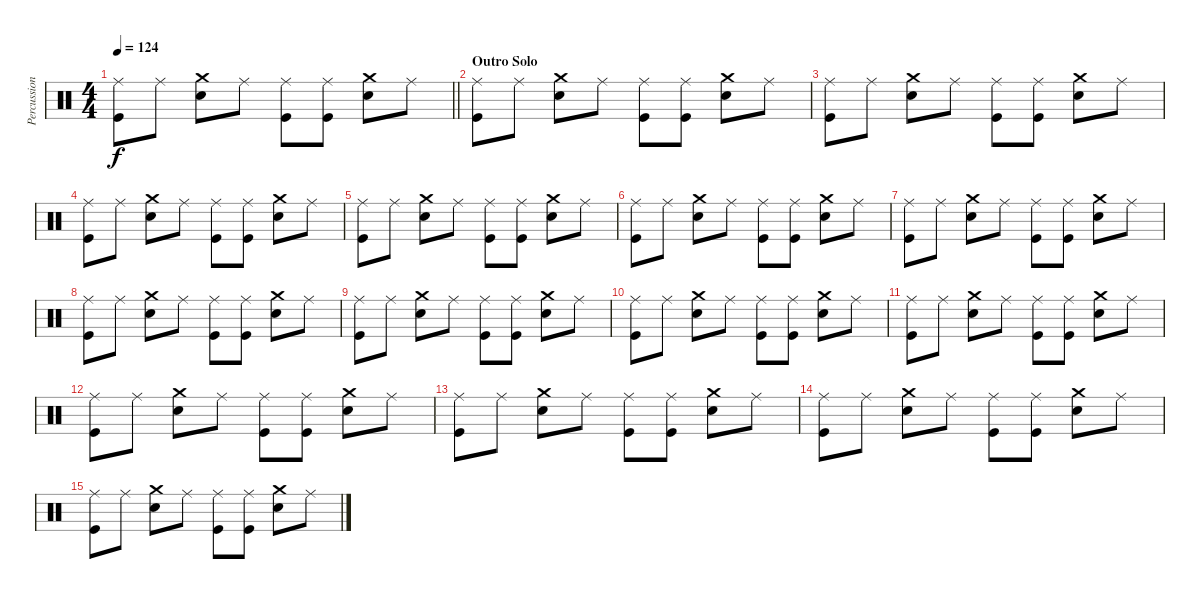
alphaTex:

\track ("Percussion" "Percussion") {instrument percussion}
\staff {score}
\articulation defaults
\ts (4 4)
\tempo 124
\clef neutral
\barLineRight lightlight
\ks c
("Ride (middle)" "Kick (hit)").8{dy f} "Ride (middle)".8 ("Crash medium (hit)" "Snare (hit) 2").8 "Ride (middle)".8 ("Ride (middle)" "Kick (hit)").8 ("Ride (middle)" "Kick (hit)").8 ("Crash medium (hit)" "Snare (hit) 2").8 "Ride (middle)".8 |
\section ("" "Outro Solo")
("Ride (middle)" "Kick (hit)").8 "Ride (middle)".8 ("Crash medium (hit)" "Snare (hit) 2").8 "Ride (middle)".8 ("Ride (middle)" "Kick (hit)").8 ("Ride (middle)" "Kick (hit)").8 ("Crash medium (hit)" "Snare (hit) 2").8 "Ride (middle)".8 |
("Ride (middle)" "Kick (hit)").8 "Ride (middle)".8 ("Crash medium (hit)" "Snare (hit) 2").8 "Ride (middle)".8 ("Ride (middle)" "Kick (hit)").8 ("Ride (middle)" "Kick (hit)").8 ("Crash medium (hit)" "Snare (hit) 2").8 "Ride (middle)".8 |
("Ride (middle)" "Kick (hit)").8 "Ride (middle)".8 ("Crash medium (hit)" "Snare (hit) 2").8 "Ride (middle)".8 ("Ride (middle)" "Kick (hit)").8 ("Ride (middle)" "Kick (hit)").8 ("Crash medium (hit)" "Snare (hit) 2").8 "Ride (middle)".8 |
("Ride (middle)" "Kick (hit)").8 "Ride (middle)".8 ("Crash medium (hit)" "Snare (hit) 2").8 "Ride (middle)".8 ("Ride (middle)" "Kick (hit)").8 ("Ride (middle)" "Kick (hit)").8 ("Crash medium (hit)" "Snare (hit) 2").8 "Ride (middle)".8 |
("Ride (middle)" "Kick (hit)").8 "Ride (middle)".8 ("Crash medium (hit)" "Snare (hit) 2").8 "Ride (middle)".8 ("Ride (middle)" "Kick (hit)").8 ("Ride (middle)" "Kick (hit)").8 ("Crash medium (hit)" "Snare (hit) 2").8 "Ride (middle)".8 |
("Ride (middle)" "Kick (hit)").8 "Ride (middle)".8 ("Crash medium (hit)" "Snare (hit) 2").8 "Ride (middle)".8 ("Ride (middle)" "Kick (hit)").8 ("Ride (middle)" "Kick (hit)").8 ("Crash medium (hit)" "Snare (hit) 2").8 "Ride (middle)".8 |
("Ride (middle)" "Kick (hit)").8 "Ride (middle)".8 ("Crash medium (hit)" "Snare (hit) 2").8 "Ride (middle)".8 ("Ride (middle)" "Kick (hit)").8 ("Ride (middle)" "Kick (hit)").8 ("Crash medium (hit)" "Snare (hit) 2").8 "Ride (middle)".8 |
("Ride (middle)" "Kick (hit)").8 "Ride (middle)".8 ("Crash medium (hit)" "Snare (hit) 2").8 "Ride (middle)".8 ("Ride (middle)" "Kick (hit)").8 ("Ride (middle)" "Kick (hit)").8 ("Crash medium (hit)" "Snare (hit) 2").8 "Ride (middle)".8 |
("Ride (middle)" "Kick (hit)").8 "Ride (middle)".8 ("Crash medium (hit)" "Snare (hit) 2").8 "Ride (middle)".8 ("Ride (middle)" "Kick (hit)").8 ("Ride (middle)" "Kick (hit)").8 ("Crash medium (hit)" "Snare (hit) 2").8 "Ride (middle)".8 |
("Ride (middle)" "Kick (hit)").8 "Ride (middle)".8 ("Crash medium (hit)" "Snare (hit) 2").8 "Ride (middle)".8 ("Ride (middle)" "Kick (hit)").8 ("Ride (middle)" "Kick (hit)").8 ("Crash medium (hit)" "Snare (hit) 2").8 "Ride (middle)".8 |
("Ride (middle)" "Kick (hit)").8 "Ride (middle)".8 ("Crash medium (hit)" "Snare (hit) 2").8 "Ride (middle)".8 ("Ride (middle)" "Kick (hit)").8 ("Ride (middle)" "Kick (hit)").8 ("Crash medium (hit)" "Snare (hit) 2").8 "Ride (middle)".8 |
("Ride (middle)" "Kick (hit)").8 "Ride (middle)".8 ("Crash medium (hit)" "Snare (hit) 2").8 "Ride (middle)".8 ("Ride (middle)" "Kick (hit)").8 ("Ride (middle)" "Kick (hit)").8 ("Crash medium (hit)" "Snare (hit) 2").8 "Ride (middle)".8 |
("Ride (middle)" "Kick (hit)").8 "Ride (middle)".8 ("Crash medium (hit)" "Snare (hit) 2").8 "Ride (middle)".8 ("Ride (middle)" "Kick (hit)").8 ("Ride (middle)" "Kick (hit)").8 ("Crash medium (hit)" "Snare (hit) 2").8 "Ride (middle)".8 |
("Ride (middle)" "Kick (hit)").8 "Ride (middle)".8 ("Crash medium (hit)" "Snare (hit) 2").8 "Ride (middle)".8 ("Ride (middle)" "Kick (hit)").8 ("Ride (middle)" "Kick (hit)").8 ("Crash medium (hit)" "Snare (hit) 2").8 "Ride (middle)".8
